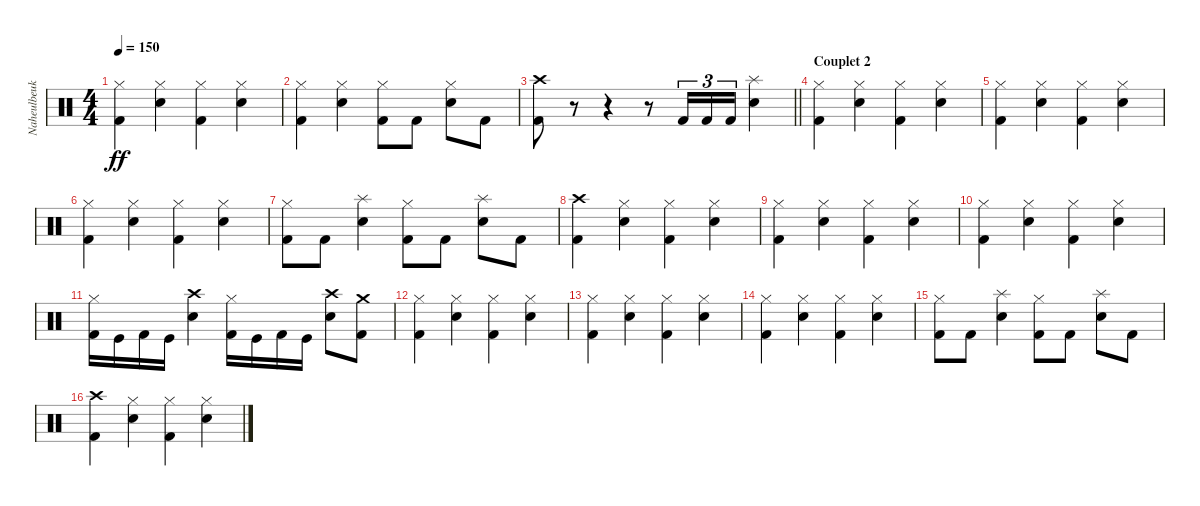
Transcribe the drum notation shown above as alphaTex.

\track ("Naheulbeuk" "Naheulbeuk") {instrument percussion}
\staff {score}
\articulation defaults
\ts (4 4)
\tempo 150
\clef neutral
\ks c
("Hi-Hat (closed)" "Kick (hit) 2").4{dy ff} ("Hi-Hat (closed)" "Snare (hit) 2").4 ("Hi-Hat (closed)" "Kick (hit) 2").4 ("Hi-Hat (closed)" "Snare (hit) 2").4 |
("Hi-Hat (closed)" "Kick (hit) 2").4 ("Hi-Hat (closed)" "Snare (hit) 2").4 ("Hi-Hat (closed)" "Kick (hit) 2").8 "Kick (hit) 2".8 ("Hi-Hat (closed)" "Snare (hit) 2").8 "Kick (hit) 2".8 |
\barLineRight lightlight
("Crash high (hit)" "Kick (hit) 2").8 r.8 r.4 r.8 "Kick (hit) 2".16{tu (3 2)} "Kick (hit) 2".16{tu (3 2)} "Kick (hit) 2".16{tu (3 2)} ("Splash (hit)" "Snare (hit) 2").4 |
\section ("" "Couplet 2")
("Hi-Hat (closed)" "Kick (hit) 2").4 ("Hi-Hat (closed)" "Snare (hit) 2").4 ("Hi-Hat (closed)" "Kick (hit) 2").4 ("Hi-Hat (closed)" "Snare (hit) 2").4 |
("Hi-Hat (closed)" "Kick (hit) 2").4 ("Hi-Hat (closed)" "Snare (hit) 2").4 ("Hi-Hat (closed)" "Kick (hit) 2").4 ("Hi-Hat (closed)" "Snare (hit) 2").4 |
("Hi-Hat (closed)" "Kick (hit) 2").4 ("Hi-Hat (closed)" "Snare (hit) 2").4 ("Hi-Hat (closed)" "Kick (hit) 2").4 ("Hi-Hat (closed)" "Snare (hit) 2").4 |
("Hi-Hat (closed)" "Kick (hit) 2").8 "Kick (hit) 2".8 ("Splash (hit)" "Snare (hit) 2").4 ("Hi-Hat (closed)" "Kick (hit) 2").8 "Kick (hit) 2".8 ("Splash (hit)" "Snare (hit) 2").8 "Kick (hit) 2".8 |
("Crash high (hit)" "Kick (hit) 2").4 ("Hi-Hat (closed)" "Snare (hit) 2").4 ("Hi-Hat (closed)" "Kick (hit) 2").4 ("Hi-Hat (closed)" "Snare (hit) 2").4 |
("Hi-Hat (closed)" "Kick (hit) 2").4 ("Hi-Hat (closed)" "Snare (hit) 2").4 ("Hi-Hat (closed)" "Kick (hit) 2").4 ("Hi-Hat (closed)" "Snare (hit) 2").4 |
("Hi-Hat (closed)" "Kick (hit) 2").4 ("Hi-Hat (closed)" "Snare (hit) 2").4 ("Hi-Hat (closed)" "Kick (hit) 2").4 ("Hi-Hat (closed)" "Snare (hit) 2").4 |
("Hi-Hat (closed)" "Kick (hit) 2").16 "Kick (hit)".16 "Kick (hit) 2".16 "Kick (hit)".16 ("Crash high (hit)" "Snare (hit) 2").4 ("Hi-Hat (closed)" "Kick (hit) 2").16 "Kick (hit)".16 "Kick (hit) 2".16 "Kick (hit)".16 ("Crash high (hit)" "Snare (hit) 2").8 ("Crash medium (hit)" "Kick (hit) 2").8 |
("Hi-Hat (closed)" "Kick (hit) 2").4 ("Hi-Hat (closed)" "Snare (hit) 2").4 ("Hi-Hat (closed)" "Kick (hit) 2").4 ("Hi-Hat (closed)" "Snare (hit) 2").4 |
("Hi-Hat (closed)" "Kick (hit) 2").4 ("Hi-Hat (closed)" "Snare (hit) 2").4 ("Hi-Hat (closed)" "Kick (hit) 2").4 ("Hi-Hat (closed)" "Snare (hit) 2").4 |
("Hi-Hat (closed)" "Kick (hit) 2").4 ("Hi-Hat (closed)" "Snare (hit) 2").4 ("Hi-Hat (closed)" "Kick (hit) 2").4 ("Hi-Hat (closed)" "Snare (hit) 2").4 |
("Hi-Hat (closed)" "Kick (hit) 2").8 "Kick (hit) 2".8 ("Splash (hit)" "Snare (hit) 2").4 ("Hi-Hat (closed)" "Kick (hit) 2").8 "Kick (hit) 2".8 ("Splash (hit)" "Snare (hit) 2").8 "Kick (hit) 2".8 |
("Crash high (hit)" "Kick (hit) 2").4 ("Hi-Hat (closed)" "Snare (hit) 2").4 ("Hi-Hat (closed)" "Kick (hit) 2").4 ("Hi-Hat (closed)" "Snare (hit) 2").4
